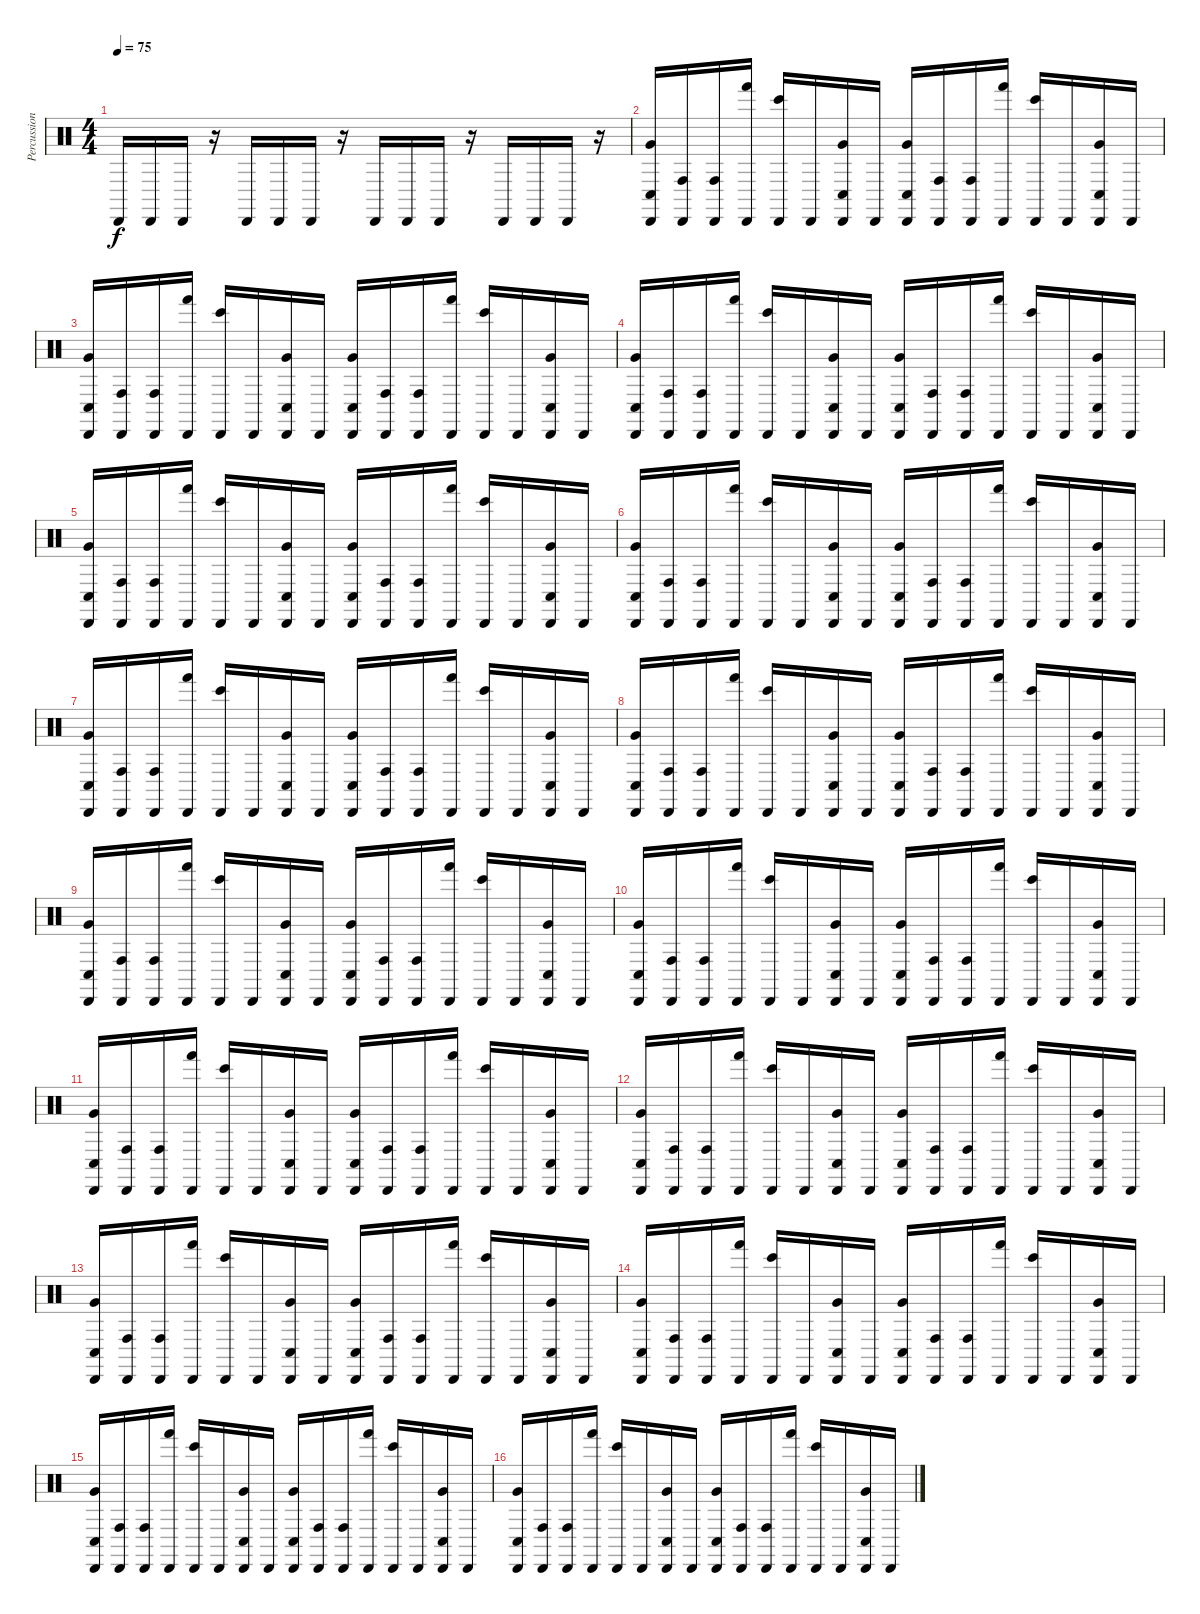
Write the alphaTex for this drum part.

\track ("Percussions" "Percussion") {instrument percussion}
\staff {score}
\articulation defaults
\ts (4 4)
\tempo 75
\clef neutral
\ks c "Cabasa (hit)".16{dy f} "Cabasa (hit)".16 "Cabasa (hit)".16
r.16 "Cabasa (hit)".16 "Cabasa (hit)".16 "Cabasa (hit)".16 r.16 "Cabasa (hit)".16 "Cabasa (hit)".16 "Cabasa (hit)".16 r.16 "Cabasa (hit)".16 "Cabasa (hit)".16 "Cabasa (hit)".16 r.16 |
("Conga low (hit)" "Very Low Tom (hit)" "Cabasa (hit)").16 ("Conga high (hit)" "Cabasa (hit)").16 ("Conga high (hit)" "Cabasa (hit)").16 ("Hand (hit)" "Cabasa (hit)").16 ("Bongo High (hit)" "Cabasa (hit)").16 "Cabasa (hit)".16 ("Conga low (hit)" "Very Low Tom (hit)" "Cabasa (hit)").16 "Cabasa (hit)".16 ("Conga low (hit)" "Very Low Tom (hit)" "Cabasa (hit)").16 ("Conga high (hit)" "Cabasa (hit)").16 ("Conga high (hit)" "Cabasa (hit)").16 ("Hand (hit)" "Cabasa (hit)").16 ("Bongo High (hit)" "Cabasa (hit)").16 "Cabasa (hit)".16 ("Conga low (hit)" "Very Low Tom (hit)" "Cabasa (hit)").16 "Cabasa (hit)".16 |
("Conga low (hit)" "Very Low Tom (hit)" "Cabasa (hit)").16 ("Conga high (hit)" "Cabasa (hit)").16 ("Conga high (hit)" "Cabasa (hit)").16 ("Hand (hit)" "Cabasa (hit)").16 ("Bongo High (hit)" "Cabasa (hit)").16 "Cabasa (hit)".16 ("Conga low (hit)" "Very Low Tom (hit)" "Cabasa (hit)").16 "Cabasa (hit)".16 ("Conga low (hit)" "Very Low Tom (hit)" "Cabasa (hit)").16 ("Conga high (hit)" "Cabasa (hit)").16 ("Conga high (hit)" "Cabasa (hit)").16 ("Hand (hit)" "Cabasa (hit)").16 ("Bongo High (hit)" "Cabasa (hit)").16 "Cabasa (hit)".16 ("Conga low (hit)" "Very Low Tom (hit)" "Cabasa (hit)").16 "Cabasa (hit)".16 |
("Conga low (hit)" "Very Low Tom (hit)" "Cabasa (hit)").16 ("Conga high (hit)" "Cabasa (hit)").16 ("Conga high (hit)" "Cabasa (hit)").16 ("Hand (hit)" "Cabasa (hit)").16 ("Bongo High (hit)" "Cabasa (hit)").16 "Cabasa (hit)".16 ("Conga low (hit)" "Very Low Tom (hit)" "Cabasa (hit)").16 "Cabasa (hit)".16 ("Conga low (hit)" "Very Low Tom (hit)" "Cabasa (hit)").16 ("Conga high (hit)" "Cabasa (hit)").16 ("Conga high (hit)" "Cabasa (hit)").16 ("Hand (hit)" "Cabasa (hit)").16 ("Bongo High (hit)" "Cabasa (hit)").16 "Cabasa (hit)".16 ("Conga low (hit)" "Very Low Tom (hit)" "Cabasa (hit)").16 "Cabasa (hit)".16 |
("Conga low (hit)" "Very Low Tom (hit)" "Cabasa (hit)").16 ("Conga high (hit)" "Cabasa (hit)").16 ("Conga high (hit)" "Cabasa (hit)").16 ("Hand (hit)" "Cabasa (hit)").16 ("Bongo High (hit)" "Cabasa (hit)").16 "Cabasa (hit)".16 ("Conga low (hit)" "Very Low Tom (hit)" "Cabasa (hit)").16 "Cabasa (hit)".16 ("Conga low (hit)" "Very Low Tom (hit)" "Cabasa (hit)").16 ("Conga high (hit)" "Cabasa (hit)").16 ("Conga high (hit)" "Cabasa (hit)").16 ("Hand (hit)" "Cabasa (hit)").16 ("Bongo High (hit)" "Cabasa (hit)").16 "Cabasa (hit)".16 ("Conga low (hit)" "Very Low Tom (hit)" "Cabasa (hit)").16 "Cabasa (hit)".16 |
("Conga low (hit)" "Very Low Tom (hit)" "Cabasa (hit)").16 ("Conga high (hit)" "Cabasa (hit)").16 ("Conga high (hit)" "Cabasa (hit)").16 ("Hand (hit)" "Cabasa (hit)").16 ("Bongo High (hit)" "Cabasa (hit)").16 "Cabasa (hit)".16 ("Conga low (hit)" "Very Low Tom (hit)" "Cabasa (hit)").16 "Cabasa (hit)".16 ("Conga low (hit)" "Very Low Tom (hit)" "Cabasa (hit)").16 ("Conga high (hit)" "Cabasa (hit)").16 ("Conga high (hit)" "Cabasa (hit)").16 ("Hand (hit)" "Cabasa (hit)").16 ("Bongo High (hit)" "Cabasa (hit)").16 "Cabasa (hit)".16 ("Conga low (hit)" "Very Low Tom (hit)" "Cabasa (hit)").16 "Cabasa (hit)".16 |
("Conga low (hit)" "Very Low Tom (hit)" "Cabasa (hit)").16 ("Conga high (hit)" "Cabasa (hit)").16 ("Conga high (hit)" "Cabasa (hit)").16 ("Hand (hit)" "Cabasa (hit)").16 ("Bongo High (hit)" "Cabasa (hit)").16 "Cabasa (hit)".16 ("Conga low (hit)" "Very Low Tom (hit)" "Cabasa (hit)").16 "Cabasa (hit)".16 ("Conga low (hit)" "Very Low Tom (hit)" "Cabasa (hit)").16 ("Conga high (hit)" "Cabasa (hit)").16 ("Conga high (hit)" "Cabasa (hit)").16 ("Hand (hit)" "Cabasa (hit)").16 ("Bongo High (hit)" "Cabasa (hit)").16 "Cabasa (hit)".16 ("Conga low (hit)" "Very Low Tom (hit)" "Cabasa (hit)").16 "Cabasa (hit)".16 |
("Conga low (hit)" "Very Low Tom (hit)" "Cabasa (hit)").16 ("Conga high (hit)" "Cabasa (hit)").16 ("Conga high (hit)" "Cabasa (hit)").16 ("Hand (hit)" "Cabasa (hit)").16 ("Bongo High (hit)" "Cabasa (hit)").16 "Cabasa (hit)".16 ("Conga low (hit)" "Very Low Tom (hit)" "Cabasa (hit)").16 "Cabasa (hit)".16 ("Conga low (hit)" "Very Low Tom (hit)" "Cabasa (hit)").16 ("Conga high (hit)" "Cabasa (hit)").16 ("Conga high (hit)" "Cabasa (hit)").16 ("Hand (hit)" "Cabasa (hit)").16 ("Bongo High (hit)" "Cabasa (hit)").16 "Cabasa (hit)".16 ("Conga low (hit)" "Very Low Tom (hit)" "Cabasa (hit)").16 "Cabasa (hit)".16 |
("Conga low (hit)" "Very Low Tom (hit)" "Cabasa (hit)").16 ("Conga high (hit)" "Cabasa (hit)").16 ("Conga high (hit)" "Cabasa (hit)").16 ("Hand (hit)" "Cabasa (hit)").16 ("Bongo High (hit)" "Cabasa (hit)").16 "Cabasa (hit)".16 ("Conga low (hit)" "Very Low Tom (hit)" "Cabasa (hit)").16 "Cabasa (hit)".16 ("Conga low (hit)" "Very Low Tom (hit)" "Cabasa (hit)").16 ("Conga high (hit)" "Cabasa (hit)").16 ("Conga high (hit)" "Cabasa (hit)").16 ("Hand (hit)" "Cabasa (hit)").16 ("Bongo High (hit)" "Cabasa (hit)").16 "Cabasa (hit)".16 ("Conga low (hit)" "Very Low Tom (hit)" "Cabasa (hit)").16 "Cabasa (hit)".16 |
("Conga low (hit)" "Very Low Tom (hit)" "Cabasa (hit)").16 ("Conga high (hit)" "Cabasa (hit)").16 ("Conga high (hit)" "Cabasa (hit)").16 ("Hand (hit)" "Cabasa (hit)").16 ("Bongo High (hit)" "Cabasa (hit)").16 "Cabasa (hit)".16 ("Conga low (hit)" "Very Low Tom (hit)" "Cabasa (hit)").16 "Cabasa (hit)".16 ("Conga low (hit)" "Very Low Tom (hit)" "Cabasa (hit)").16 ("Conga high (hit)" "Cabasa (hit)").16 ("Conga high (hit)" "Cabasa (hit)").16 ("Hand (hit)" "Cabasa (hit)").16 ("Bongo High (hit)" "Cabasa (hit)").16 "Cabasa (hit)".16 ("Conga low (hit)" "Very Low Tom (hit)" "Cabasa (hit)").16 "Cabasa (hit)".16 |
("Conga low (hit)" "Very Low Tom (hit)" "Cabasa (hit)").16 ("Conga high (hit)" "Cabasa (hit)").16 ("Conga high (hit)" "Cabasa (hit)").16 ("Hand (hit)" "Cabasa (hit)").16 ("Bongo High (hit)" "Cabasa (hit)").16 "Cabasa (hit)".16 ("Conga low (hit)" "Very Low Tom (hit)" "Cabasa (hit)").16 "Cabasa (hit)".16 ("Conga low (hit)" "Very Low Tom (hit)" "Cabasa (hit)").16 ("Conga high (hit)" "Cabasa (hit)").16 ("Conga high (hit)" "Cabasa (hit)").16 ("Hand (hit)" "Cabasa (hit)").16 ("Bongo High (hit)" "Cabasa (hit)").16 "Cabasa (hit)".16 ("Conga low (hit)" "Very Low Tom (hit)" "Cabasa (hit)").16 "Cabasa (hit)".16 |
("Conga low (hit)" "Very Low Tom (hit)" "Cabasa (hit)").16 ("Conga high (hit)" "Cabasa (hit)").16 ("Conga high (hit)" "Cabasa (hit)").16 ("Hand (hit)" "Cabasa (hit)").16 ("Bongo High (hit)" "Cabasa (hit)").16 "Cabasa (hit)".16 ("Conga low (hit)" "Very Low Tom (hit)" "Cabasa (hit)").16 "Cabasa (hit)".16 ("Conga low (hit)" "Very Low Tom (hit)" "Cabasa (hit)").16 ("Conga high (hit)" "Cabasa (hit)").16 ("Conga high (hit)" "Cabasa (hit)").16 ("Hand (hit)" "Cabasa (hit)").16 ("Bongo High (hit)" "Cabasa (hit)").16 "Cabasa (hit)".16 ("Conga low (hit)" "Very Low Tom (hit)" "Cabasa (hit)").16 "Cabasa (hit)".16 |
("Conga low (hit)" "Very Low Tom (hit)" "Cabasa (hit)").16 ("Conga high (hit)" "Cabasa (hit)").16 ("Conga high (hit)" "Cabasa (hit)").16 ("Hand (hit)" "Cabasa (hit)").16 ("Bongo High (hit)" "Cabasa (hit)").16 "Cabasa (hit)".16 ("Conga low (hit)" "Very Low Tom (hit)" "Cabasa (hit)").16 "Cabasa (hit)".16 ("Conga low (hit)" "Very Low Tom (hit)" "Cabasa (hit)").16 ("Conga high (hit)" "Cabasa (hit)").16 ("Conga high (hit)" "Cabasa (hit)").16 ("Hand (hit)" "Cabasa (hit)").16 ("Bongo High (hit)" "Cabasa (hit)").16 "Cabasa (hit)".16 ("Conga low (hit)" "Very Low Tom (hit)" "Cabasa (hit)").16 "Cabasa (hit)".16 |
("Conga low (hit)" "Very Low Tom (hit)" "Cabasa (hit)").16 ("Conga high (hit)" "Cabasa (hit)").16 ("Conga high (hit)" "Cabasa (hit)").16 ("Hand (hit)" "Cabasa (hit)").16 ("Bongo High (hit)" "Cabasa (hit)").16 "Cabasa (hit)".16 ("Conga low (hit)" "Very Low Tom (hit)" "Cabasa (hit)").16 "Cabasa (hit)".16 ("Conga low (hit)" "Very Low Tom (hit)" "Cabasa (hit)").16 ("Conga high (hit)" "Cabasa (hit)").16 ("Conga high (hit)" "Cabasa (hit)").16 ("Hand (hit)" "Cabasa (hit)").16 ("Bongo High (hit)" "Cabasa (hit)").16 "Cabasa (hit)".16 ("Conga low (hit)" "Very Low Tom (hit)" "Cabasa (hit)").16 "Cabasa (hit)".16 |
("Conga low (hit)" "Very Low Tom (hit)" "Cabasa (hit)").16 ("Conga high (hit)" "Cabasa (hit)").16 ("Conga high (hit)" "Cabasa (hit)").16 ("Hand (hit)" "Cabasa (hit)").16 ("Bongo High (hit)" "Cabasa (hit)").16 "Cabasa (hit)".16 ("Conga low (hit)" "Very Low Tom (hit)" "Cabasa (hit)").16 "Cabasa (hit)".16 ("Conga low (hit)" "Very Low Tom (hit)" "Cabasa (hit)").16 ("Conga high (hit)" "Cabasa (hit)").16 ("Conga high (hit)" "Cabasa (hit)").16 ("Hand (hit)" "Cabasa (hit)").16 ("Bongo High (hit)" "Cabasa (hit)").16 "Cabasa (hit)".16 ("Conga low (hit)" "Very Low Tom (hit)" "Cabasa (hit)").16 "Cabasa (hit)".16 |
("Conga low (hit)" "Very Low Tom (hit)" "Cabasa (hit)").16 ("Conga high (hit)" "Cabasa (hit)").16 ("Conga high (hit)" "Cabasa (hit)").16 ("Hand (hit)" "Cabasa (hit)").16 ("Bongo High (hit)" "Cabasa (hit)").16 "Cabasa (hit)".16 ("Conga low (hit)" "Very Low Tom (hit)" "Cabasa (hit)").16 "Cabasa (hit)".16 ("Conga low (hit)" "Very Low Tom (hit)" "Cabasa (hit)").16 ("Conga high (hit)" "Cabasa (hit)").16 ("Conga high (hit)" "Cabasa (hit)").16 ("Hand (hit)" "Cabasa (hit)").16 ("Bongo High (hit)" "Cabasa (hit)").16 "Cabasa (hit)".16 ("Conga low (hit)" "Very Low Tom (hit)" "Cabasa (hit)").16 "Cabasa (hit)".16
